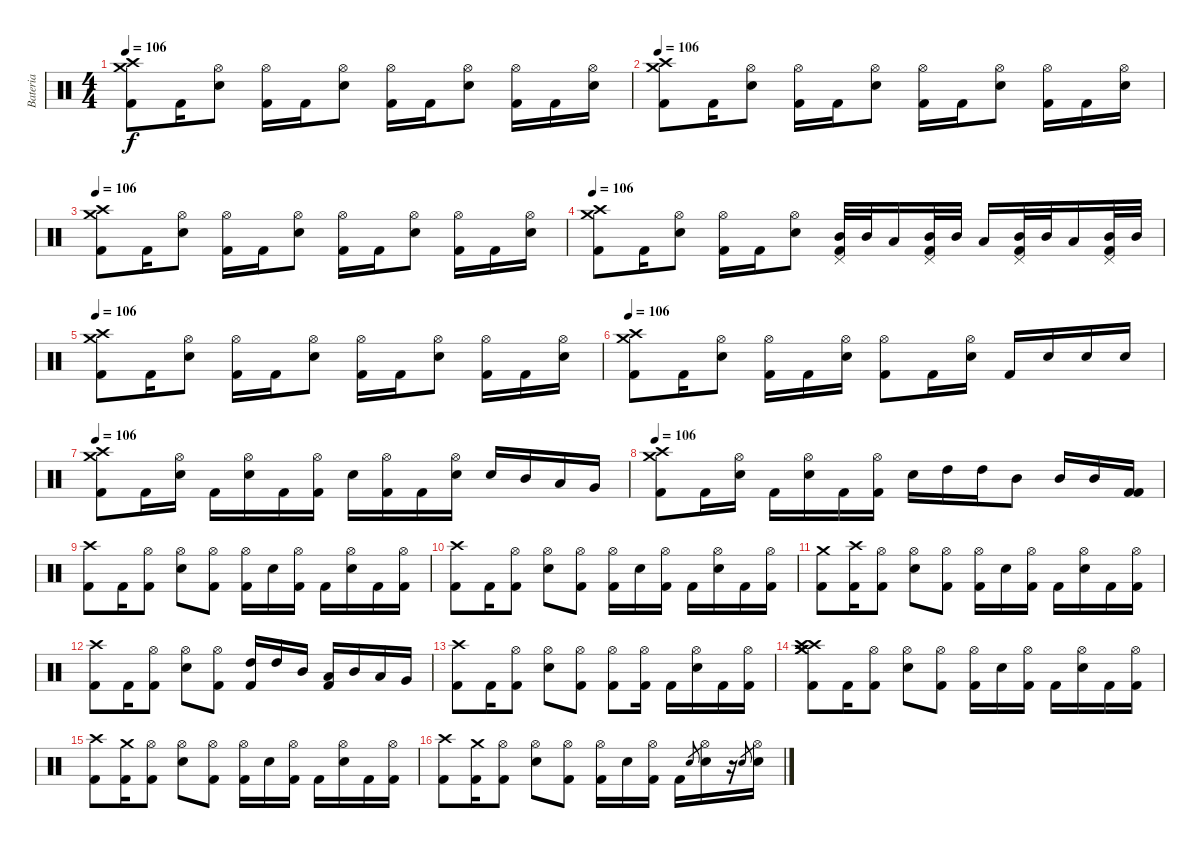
\track ("Bateria" "Bateria") {instrument percussion}
\staff {score}
\articulation defaults
\ts (4 4)
\tempo 106
\clef neutral
\ks c
("Crash medium (hit)" "Crash high (hit)" "Kick (hit) 2").8{dy f} "Kick (hit) 2".16 ("Hi-Hat (open)" "Electric Snare (hit)").8 ("Hi-Hat (open)" "Kick (hit) 2").16 "Kick (hit) 2".16 ("Hi-Hat (open)" "Electric Snare (hit)").8 ("Hi-Hat (open)" "Kick (hit) 2").16 "Kick (hit) 2".16 ("Hi-Hat (open)" "Electric Snare (hit)").8 ("Hi-Hat (open)" "Kick (hit) 2").16 "Kick (hit) 2".16 ("Hi-Hat (open)" "Electric Snare (hit)").16 |
\tempo 106
("Crash medium (hit)" "Crash high (hit)" "Kick (hit) 2").8 "Kick (hit) 2".16 ("Hi-Hat (open)" "Electric Snare (hit)").8 ("Hi-Hat (open)" "Kick (hit) 2").16 "Kick (hit) 2".16 ("Hi-Hat (open)" "Electric Snare (hit)").8 ("Hi-Hat (open)" "Kick (hit) 2").16 "Kick (hit) 2".16 ("Hi-Hat (open)" "Electric Snare (hit)").8 ("Hi-Hat (open)" "Kick (hit) 2").16 "Kick (hit) 2".16 ("Hi-Hat (open)" "Electric Snare (hit)").16 |
\tempo 106
("Crash medium (hit)" "Crash high (hit)" "Kick (hit) 2").8 "Kick (hit) 2".16 ("Hi-Hat (open)" "Electric Snare (hit)").8 ("Hi-Hat (open)" "Kick (hit) 2").16 "Kick (hit) 2".16 ("Hi-Hat (open)" "Electric Snare (hit)").8 ("Hi-Hat (open)" "Kick (hit) 2").16 "Kick (hit) 2".16 ("Hi-Hat (open)" "Electric Snare (hit)").8 ("Hi-Hat (open)" "Kick (hit) 2").16 "Kick (hit) 2".16 ("Hi-Hat (open)" "Electric Snare (hit)").16 |
\tempo 106
("Crash medium (hit)" "Crash high (hit)" "Kick (hit) 2").8 "Kick (hit) 2".16 ("Hi-Hat (open)" "Electric Snare (hit)").8 ("Hi-Hat (open)" "Kick (hit) 2").16 "Kick (hit) 2".16 ("Hi-Hat (open)" "Electric Snare (hit)").8 ("Pedal Hi-Hat (hit)" "Mid Tom (hit)" "Kick (hit) 2").32 "Mid Tom (hit)".32 "Low Tom (hit)".16 ("Pedal Hi-Hat (hit)" "Mid Tom (hit)" "Kick (hit) 2").32 "Mid Tom (hit)".32 "Low Tom (hit)".16 ("Pedal Hi-Hat (hit)" "Mid Tom (hit)" "Kick (hit) 2").32 "Mid Tom (hit)".32 "Low Tom (hit)".16 ("Pedal Hi-Hat (hit)" "Mid Tom (hit)" "Kick (hit) 2").32 "Mid Tom (hit)".32 |
\tempo 106
("Crash medium (hit)" "Crash high (hit)" "Kick (hit) 2").8 "Kick (hit) 2".16 ("Hi-Hat (open)" "Electric Snare (hit)").8 ("Hi-Hat (open)" "Kick (hit) 2").16 "Kick (hit) 2".16 ("Hi-Hat (open)" "Electric Snare (hit)").8 ("Hi-Hat (open)" "Kick (hit) 2").16 "Kick (hit) 2".16 ("Hi-Hat (open)" "Electric Snare (hit)").8 ("Hi-Hat (open)" "Kick (hit) 2").16 "Kick (hit) 2".16 ("Hi-Hat (open)" "Electric Snare (hit)").16 |
\tempo 106
("Crash medium (hit)" "Crash high (hit)" "Kick (hit) 2").8 "Kick (hit) 2".16 ("Hi-Hat (open)" "Electric Snare (hit)").8 ("Hi-Hat (open)" "Kick (hit) 2").16 "Kick (hit) 2".16 ("Hi-Hat (open)" "Electric Snare (hit)").16 ("Hi-Hat (open)" "Kick (hit) 2").8 "Kick (hit) 2".16 ("Hi-Hat (open)" "Electric Snare (hit)").16 "Kick (hit) 2".16 "Electric Snare (hit)".16 "Electric Snare (hit)".16 "Electric Snare (hit)".16 |
\tempo 106
("Crash medium (hit)" "Crash high (hit)" "Kick (hit) 2").8 "Kick (hit) 2".16 ("Hi-Hat (open)" "Electric Snare (hit)").16 "Kick (hit) 2".16 ("Hi-Hat (open)" "Electric Snare (hit)").16 "Kick (hit) 2".16 ("Hi-Hat (open)" "Kick (hit) 2").16 "Electric Snare (hit)".16 ("Hi-Hat (open)" "Kick (hit) 2").16 "Kick (hit) 2".16 ("Hi-Hat (open)" "Electric Snare (hit)").16 "Electric Snare (hit)".16 "Mid Tom (hit)".16 "Low Tom (hit)".16 "Very Low Tom (hit)".16 |
\tempo 106
("Crash medium (hit)" "Crash high (hit)" "Kick (hit) 2").8 "Kick (hit) 2".16 ("Hi-Hat (open)" "Electric Snare (hit)").16 "Kick (hit) 2".16 ("Hi-Hat (open)" "Electric Snare (hit)").16 "Kick (hit) 2".16 ("Hi-Hat (open)" "Kick (hit) 2").16 "Electric Snare (hit)".16 "High Tom (hit)".16 "High Tom (hit)".16 "Mid Tom (hit)".8 "Mid Tom (hit)".16 "Mid Tom (hit)".16 ("Kick (hit) 2" "Kick (hit) 2").16 |
("Crash high (hit)" "Kick (hit) 2").8 "Kick (hit) 2".16 ("Hi-Hat (open)" "Kick (hit) 2").8 ("Hi-Hat (open)" "Electric Snare (hit)").8 ("Hi-Hat (open)" "Kick (hit) 2").8 ("Hi-Hat (open)" "Kick (hit) 2").16 "Electric Snare (hit)".16 ("Hi-Hat (open)" "Kick (hit) 2").16 "Kick (hit) 2".16 ("Hi-Hat (open)" "Electric Snare (hit)").16 "Kick (hit) 2".16 ("Hi-Hat (open)" "Kick (hit) 2").16 |
("Crash high (hit)" "Kick (hit) 2").8 "Kick (hit) 2".16 ("Hi-Hat (open)" "Kick (hit) 2").8 ("Hi-Hat (open)" "Electric Snare (hit)").8 ("Hi-Hat (open)" "Kick (hit) 2").8 ("Hi-Hat (open)" "Kick (hit) 2").16 "Electric Snare (hit)".16 ("Hi-Hat (open)" "Kick (hit) 2").16 "Kick (hit) 2".16 ("Hi-Hat (open)" "Electric Snare (hit)").16 "Kick (hit) 2".16 ("Hi-Hat (open)" "Kick (hit) 2").16 |
("Crash medium (hit)" "Kick (hit) 2").8 ("Crash high (hit)" "Kick (hit) 2").16 ("Hi-Hat (open)" "Kick (hit) 2").8 ("Hi-Hat (open)" "Electric Snare (hit)").8 ("Hi-Hat (open)" "Kick (hit) 2").8 ("Hi-Hat (open)" "Kick (hit) 2").16 "Electric Snare (hit)".16 ("Hi-Hat (open)" "Kick (hit) 2").16 "Kick (hit) 2".16 ("Hi-Hat (open)" "Electric Snare (hit)").16 "Kick (hit) 2".16 ("Hi-Hat (open)" "Kick (hit) 2").16 |
("Crash high (hit)" "Kick (hit) 2").8 "Kick (hit) 2".16 ("Hi-Hat (open)" "Kick (hit) 2").8 ("Hi-Hat (open)" "Electric Snare (hit)").8 ("Hi-Hat (open)" "Kick (hit) 2").8 ("High Tom (hit)" "Kick (hit) 2").16 "High Tom (hit)".16 "Mid Tom (hit)".16 ("Low Tom (hit)" "Kick (hit) 2").16 "Mid Tom (hit)".16 "Low Tom (hit)".16 "Very Low Tom (hit)".16 |
("Crash high (hit)" "Kick (hit) 2").8 "Kick (hit) 2".16 ("Hi-Hat (open)" "Kick (hit) 2").8 ("Hi-Hat (open)" "Electric Snare (hit)").8 ("Hi-Hat (open)" "Kick (hit) 2").8 ("Hi-Hat (open)" "Kick (hit) 2").8 ("Hi-Hat (open)" "Kick (hit) 2").16 "Kick (hit) 2".16 ("Hi-Hat (open)" "Electric Snare (hit)").16 "Kick (hit) 2".16 ("Hi-Hat (open)" "Kick (hit) 2").16 |
("Crash high (hit)" "Crash medium (hit)" "Kick (hit) 2" "Crash medium (hit)" "Crash high (hit)").8 "Kick (hit) 2".16 ("Hi-Hat (open)" "Kick (hit) 2").8 ("Hi-Hat (open)" "Electric Snare (hit)").8 ("Hi-Hat (open)" "Kick (hit) 2").8 ("Hi-Hat (open)" "Kick (hit) 2").16 "Electric Snare (hit)".16 ("Hi-Hat (open)" "Kick (hit) 2").16 "Kick (hit) 2".16 ("Hi-Hat (open)" "Electric Snare (hit)").16 "Kick (hit) 2".16 ("Hi-Hat (open)" "Kick (hit) 2").16 |
("Crash high (hit)" "Kick (hit) 2").8 ("Crash medium (hit)" "Kick (hit) 2").16 ("Hi-Hat (open)" "Kick (hit) 2").8 ("Hi-Hat (open)" "Electric Snare (hit)").8 ("Hi-Hat (open)" "Kick (hit) 2").8 ("Hi-Hat (open)" "Kick (hit) 2").16 "Electric Snare (hit)".16 ("Hi-Hat (open)" "Kick (hit) 2").16 "Kick (hit) 2".16 ("Hi-Hat (open)" "Electric Snare (hit)").16 "Kick (hit) 2".16 ("Hi-Hat (open)" "Kick (hit) 2").16 |
("Crash high (hit)" "Kick (hit) 2").8 ("Crash medium (hit)" "Kick (hit) 2").16 ("Hi-Hat (open)" "Kick (hit) 2").8 ("Hi-Hat (open)" "Electric Snare (hit)").8 ("Hi-Hat (open)" "Kick (hit) 2").8 ("Hi-Hat (open)" "Kick (hit) 2").16 "Electric Snare (hit)".16 ("Hi-Hat (open)" "Kick (hit) 2").16 "Kick (hit) 2".16 "Electric Snare (hit)".8{gr} ("Hi-Hat (open)" "Electric Snare (hit)").16 r.16 "Electric Snare (hit)".8{gr} ("Hi-Hat (open)" "Electric Snare (hit)").16
